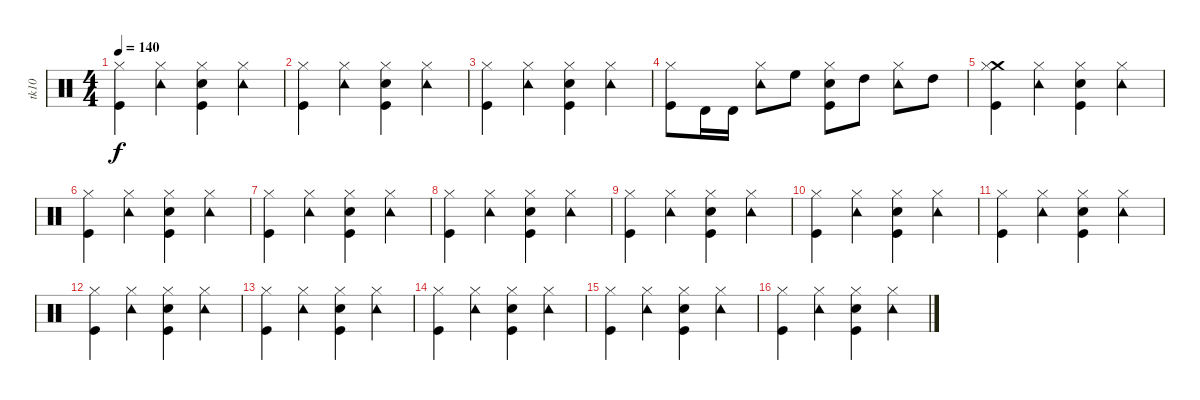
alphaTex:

\track ("tk10" "tk10") {instrument percussion}
\staff {score}
\articulation defaults
\ts (4 4)
\tempo 140
\clef neutral
\ks c
("Hi-Hat (closed)" "Kick (hit)").4{dy f} ("Tambourine (hit)" "Hi-Hat (closed)").4 ("Electric Snare (hit)" "Hi-Hat (closed)" "Kick (hit)").4 ("Hi-Hat (closed)" "Tambourine (hit)").4 |
("Hi-Hat (closed)" "Kick (hit)").4 ("Tambourine (hit)" "Hi-Hat (closed)").4 ("Electric Snare (hit)" "Hi-Hat (closed)" "Kick (hit)").4 ("Hi-Hat (closed)" "Tambourine (hit)").4 |
("Hi-Hat (closed)" "Kick (hit)").4 ("Tambourine (hit)" "Hi-Hat (closed)").4 ("Electric Snare (hit)" "Hi-Hat (closed)" "Kick (hit)").4 ("Hi-Hat (closed)" "Tambourine (hit)").4 |
("Hi-Hat (closed)" "Kick (hit)").8 "Timbale high (hit)".16 "Timbale high (hit)".16 ("Tambourine (hit)" "Hi-Hat (closed)").8 "High Floor Tom (hit)".8 ("Electric Snare (hit)" "Hi-Hat (closed)" "Kick (hit)").8 "High Tom (hit)".8 ("Hi-Hat (closed)" "Tambourine (hit)").8 "High Tom (hit)".8 |
("Crash medium (hit)" "Hi-Hat (closed)" "Kick (hit)").4 ("Tambourine (hit)" "Hi-Hat (closed)").4 ("Electric Snare (hit)" "Hi-Hat (closed)" "Kick (hit)").4 ("Hi-Hat (closed)" "Tambourine (hit)").4 |
("Hi-Hat (closed)" "Kick (hit)").4 ("Tambourine (hit)" "Hi-Hat (closed)").4 ("Electric Snare (hit)" "Hi-Hat (closed)" "Kick (hit)").4 ("Hi-Hat (closed)" "Tambourine (hit)").4 |
("Hi-Hat (closed)" "Kick (hit)").4 ("Tambourine (hit)" "Hi-Hat (closed)").4 ("Electric Snare (hit)" "Hi-Hat (closed)" "Kick (hit)").4 ("Hi-Hat (closed)" "Tambourine (hit)").4 |
("Hi-Hat (closed)" "Kick (hit)").4 ("Tambourine (hit)" "Hi-Hat (closed)").4 ("Electric Snare (hit)" "Hi-Hat (closed)" "Kick (hit)").4 ("Hi-Hat (closed)" "Tambourine (hit)").4 |
("Hi-Hat (closed)" "Kick (hit)").4 ("Tambourine (hit)" "Hi-Hat (closed)").4 ("Electric Snare (hit)" "Hi-Hat (closed)" "Kick (hit)").4 ("Hi-Hat (closed)" "Tambourine (hit)").4 |
("Hi-Hat (closed)" "Kick (hit)").4 ("Tambourine (hit)" "Hi-Hat (closed)").4 ("Electric Snare (hit)" "Hi-Hat (closed)" "Kick (hit)").4 ("Hi-Hat (closed)" "Tambourine (hit)").4 |
("Hi-Hat (closed)" "Kick (hit)").4 ("Tambourine (hit)" "Hi-Hat (closed)").4 ("Electric Snare (hit)" "Hi-Hat (closed)" "Kick (hit)").4 ("Hi-Hat (closed)" "Tambourine (hit)").4 |
("Hi-Hat (closed)" "Kick (hit)").4 ("Tambourine (hit)" "Hi-Hat (closed)").4 ("Electric Snare (hit)" "Hi-Hat (closed)" "Kick (hit)").4 ("Hi-Hat (closed)" "Tambourine (hit)").4 |
("Hi-Hat (closed)" "Kick (hit)").4 ("Tambourine (hit)" "Hi-Hat (closed)").4 ("Electric Snare (hit)" "Hi-Hat (closed)" "Kick (hit)").4 ("Hi-Hat (closed)" "Tambourine (hit)").4 |
("Hi-Hat (closed)" "Kick (hit)").4 ("Tambourine (hit)" "Hi-Hat (closed)").4 ("Electric Snare (hit)" "Hi-Hat (closed)" "Kick (hit)").4 ("Hi-Hat (closed)" "Tambourine (hit)").4 |
("Hi-Hat (closed)" "Kick (hit)").4 ("Tambourine (hit)" "Hi-Hat (closed)").4 ("Electric Snare (hit)" "Hi-Hat (closed)" "Kick (hit)").4 ("Hi-Hat (closed)" "Tambourine (hit)").4 |
("Hi-Hat (closed)" "Kick (hit)").4 ("Tambourine (hit)" "Hi-Hat (closed)").4 ("Electric Snare (hit)" "Hi-Hat (closed)" "Kick (hit)").4 ("Hi-Hat (closed)" "Tambourine (hit)").4
